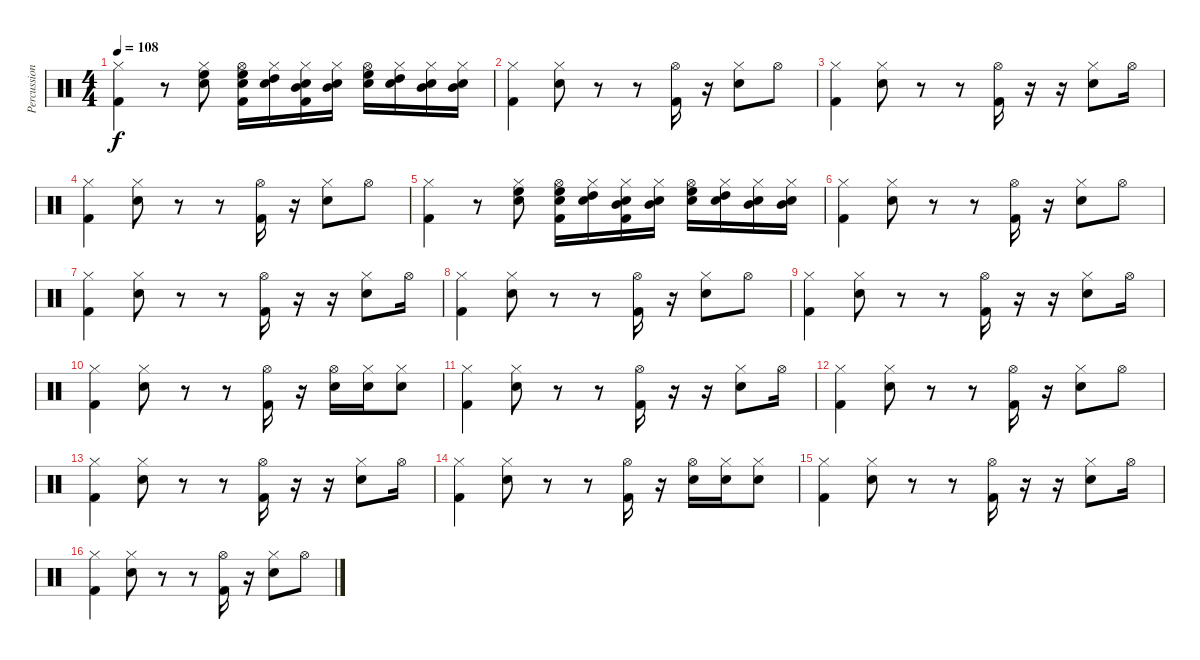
\track ("Percussions" "Percussion") {instrument percussion}
\staff {score}
\articulation defaults
\ts (4 4)
\tempo 108
\clef neutral
\ks c
("Hi-Hat (closed)" "Kick (hit) 2").4{dy f} r.8 ("Hi-Hat (closed)" "High Floor Tom (hit)" "Snare (hit) 2").8 ("Hi-Hat (open)" "High Floor Tom (hit)" "Snare (hit) 2" "Kick (hit) 2").16 ("Hi-Hat (closed)" "High Tom (hit)" "Snare (hit) 2").16 ("Hi-Hat (closed)" "Mid Tom (hit)" "Snare (hit) 2" "Kick (hit) 2").16 ("Hi-Hat (closed)" "Mid Tom (hit)" "Snare (hit) 2").16 ("Hi-Hat (open)" "High Floor Tom (hit)" "Snare (hit) 2").16 ("Hi-Hat (closed)" "High Tom (hit)" "Snare (hit) 2").16 ("Hi-Hat (closed)" "Mid Tom (hit)" "Snare (hit) 2").16 ("Hi-Hat (closed)" "Mid Tom (hit)" "Snare (hit) 2").16 |
("Hi-Hat (closed)" "Kick (hit) 2").4 ("Hi-Hat (closed)" "Snare (hit) 2").8 r.8 r.8 ("Hi-Hat (open)" "Kick (hit) 2").16 r.16 ("Hi-Hat (closed)" "Snare (hit) 2").8 "Hi-Hat (open)".8 |
("Hi-Hat (closed)" "Kick (hit) 2").4 ("Hi-Hat (closed)" "Snare (hit) 2").8 r.8 r.8 ("Hi-Hat (open)" "Kick (hit) 2").16 r.16 r.16 ("Hi-Hat (closed)" "Snare (hit) 2").8 "Hi-Hat (open)".16 |
("Hi-Hat (closed)" "Kick (hit) 2").4 ("Hi-Hat (closed)" "Snare (hit) 2").8 r.8 r.8 ("Hi-Hat (open)" "Kick (hit) 2").16 r.16 ("Hi-Hat (closed)" "Snare (hit) 2").8 "Hi-Hat (open)".8 |
("Hi-Hat (closed)" "Kick (hit) 2").4 r.8 ("Hi-Hat (closed)" "High Floor Tom (hit)" "Snare (hit) 2").8 ("Hi-Hat (open)" "High Floor Tom (hit)" "Snare (hit) 2" "Kick (hit) 2").16 ("Hi-Hat (closed)" "High Tom (hit)" "Snare (hit) 2").16 ("Hi-Hat (closed)" "Mid Tom (hit)" "Snare (hit) 2" "Kick (hit) 2").16 ("Hi-Hat (closed)" "Mid Tom (hit)" "Snare (hit) 2").16 ("Hi-Hat (open)" "High Floor Tom (hit)" "Snare (hit) 2").16 ("Hi-Hat (closed)" "High Tom (hit)" "Snare (hit) 2").16 ("Hi-Hat (closed)" "Mid Tom (hit)" "Snare (hit) 2").16 ("Hi-Hat (closed)" "Mid Tom (hit)" "Snare (hit) 2").16 |
("Hi-Hat (closed)" "Kick (hit) 2").4 ("Hi-Hat (closed)" "Snare (hit) 2").8 r.8 r.8 ("Hi-Hat (open)" "Kick (hit) 2").16 r.16 ("Hi-Hat (closed)" "Snare (hit) 2").8 "Hi-Hat (open)".8 |
("Hi-Hat (closed)" "Kick (hit) 2").4 ("Hi-Hat (closed)" "Snare (hit) 2").8 r.8 r.8 ("Hi-Hat (open)" "Kick (hit) 2").16 r.16 r.16 ("Hi-Hat (closed)" "Snare (hit) 2").8 "Hi-Hat (open)".16 |
("Hi-Hat (closed)" "Kick (hit) 2").4 ("Hi-Hat (closed)" "Snare (hit) 2").8 r.8 r.8 ("Hi-Hat (open)" "Kick (hit) 2").16 r.16 ("Hi-Hat (closed)" "Snare (hit) 2").8 "Hi-Hat (open)".8 |
("Hi-Hat (closed)" "Kick (hit) 2").4 ("Hi-Hat (closed)" "Snare (hit) 2").8 r.8 r.8 ("Hi-Hat (open)" "Kick (hit) 2").16 r.16 r.16 ("Hi-Hat (closed)" "Snare (hit) 2").8 "Hi-Hat (open)".16 |
("Hi-Hat (closed)" "Kick (hit) 2").4 ("Hi-Hat (closed)" "Snare (hit) 2").8 r.8 r.8 ("Hi-Hat (open)" "Kick (hit) 2").16 r.16 ("Hi-Hat (open)" "Snare (hit) 2").16 ("Hi-Hat (closed)" "Snare (hit) 2").16 ("Hi-Hat (closed)" "Snare (hit) 2").8 |
("Hi-Hat (closed)" "Kick (hit) 2").4 ("Hi-Hat (closed)" "Snare (hit) 2").8 r.8 r.8 ("Hi-Hat (open)" "Kick (hit) 2").16 r.16 r.16 ("Hi-Hat (closed)" "Snare (hit) 2").8 "Hi-Hat (open)".16 |
("Hi-Hat (closed)" "Kick (hit) 2").4 ("Hi-Hat (closed)" "Snare (hit) 2").8 r.8 r.8 ("Hi-Hat (open)" "Kick (hit) 2").16 r.16 ("Hi-Hat (closed)" "Snare (hit) 2").8 "Hi-Hat (open)".8 |
("Hi-Hat (closed)" "Kick (hit) 2").4 ("Hi-Hat (closed)" "Snare (hit) 2").8 r.8 r.8 ("Hi-Hat (open)" "Kick (hit) 2").16 r.16 r.16 ("Hi-Hat (closed)" "Snare (hit) 2").8 "Hi-Hat (open)".16 |
("Hi-Hat (closed)" "Kick (hit) 2").4 ("Hi-Hat (closed)" "Snare (hit) 2").8 r.8 r.8 ("Hi-Hat (open)" "Kick (hit) 2").16 r.16 ("Hi-Hat (open)" "Snare (hit) 2").16 ("Hi-Hat (closed)" "Snare (hit) 2").16 ("Hi-Hat (closed)" "Snare (hit) 2").8 |
("Hi-Hat (closed)" "Kick (hit) 2").4 ("Hi-Hat (closed)" "Snare (hit) 2").8 r.8 r.8 ("Hi-Hat (open)" "Kick (hit) 2").16 r.16 r.16 ("Hi-Hat (closed)" "Snare (hit) 2").8 "Hi-Hat (open)".16 |
("Hi-Hat (closed)" "Kick (hit) 2").4 ("Hi-Hat (closed)" "Snare (hit) 2").8 r.8 r.8 ("Hi-Hat (open)" "Kick (hit) 2").16 r.16 ("Hi-Hat (closed)" "Snare (hit) 2").8 "Hi-Hat (open)".8
